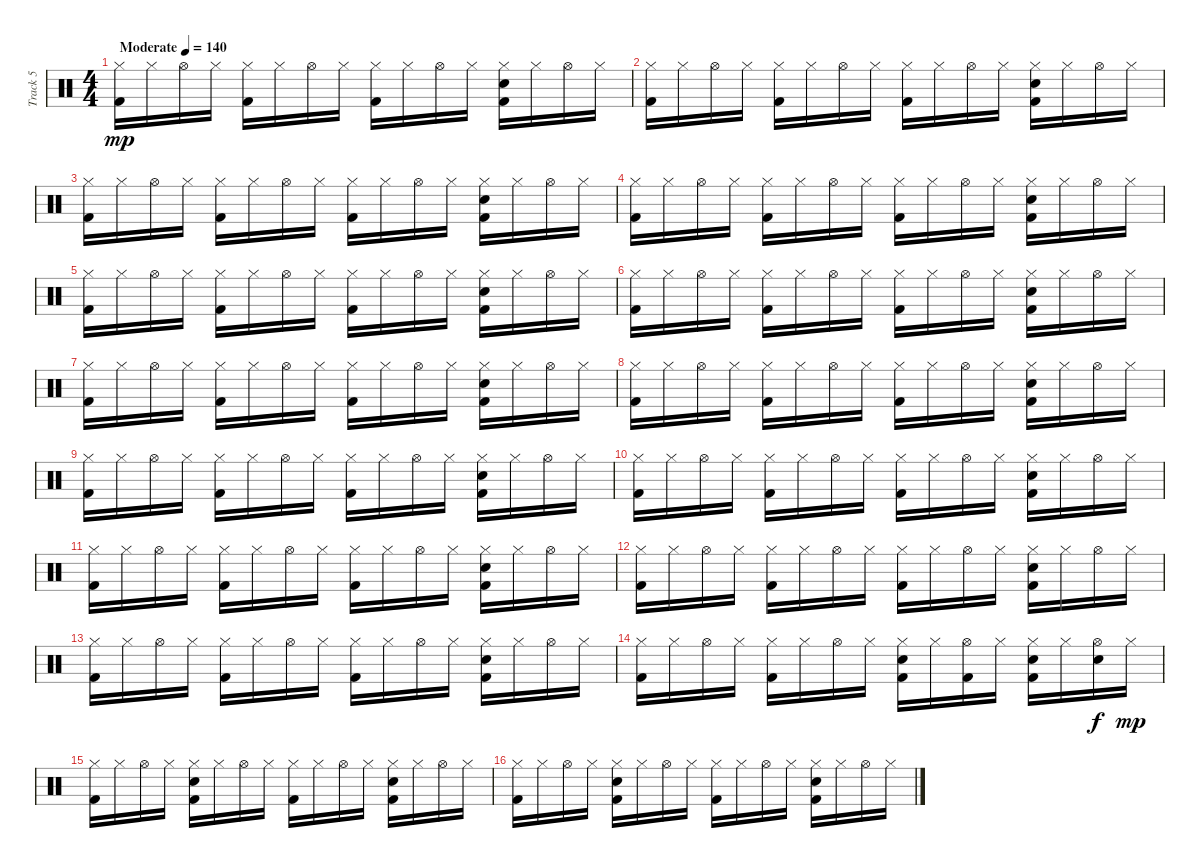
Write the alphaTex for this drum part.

\track ("Track 5" "Track 5") {instrument percussion}
\staff {score}
\articulation defaults
\ts (4 4)
\tempo (140 "Moderate")
\clef neutral
\ks c
("Hi-Hat (closed)" "Kick (hit) 2").16{dy mp} "Hi-Hat (closed)".16 "Hi-Hat (open)".16 "Hi-Hat (closed)".16 ("Hi-Hat (closed)" "Kick (hit) 2").16 "Hi-Hat (closed)".16 "Hi-Hat (open)".16 "Hi-Hat (closed)".16 ("Hi-Hat (closed)" "Kick (hit) 2").16 "Hi-Hat (closed)".16 "Hi-Hat (open)".16 "Hi-Hat (closed)".16 ("Hi-Hat (closed)" "Electric Snare (hit)" "Kick (hit) 2").16 "Hi-Hat (closed)".16 "Hi-Hat (open)".16 "Hi-Hat (closed)".16 |
("Hi-Hat (closed)" "Kick (hit) 2").16 "Hi-Hat (closed)".16 "Hi-Hat (open)".16 "Hi-Hat (closed)".16 ("Hi-Hat (closed)" "Kick (hit) 2").16 "Hi-Hat (closed)".16 "Hi-Hat (open)".16 "Hi-Hat (closed)".16 ("Hi-Hat (closed)" "Kick (hit) 2").16 "Hi-Hat (closed)".16 "Hi-Hat (open)".16 "Hi-Hat (closed)".16 ("Hi-Hat (closed)" "Electric Snare (hit)" "Kick (hit) 2").16 "Hi-Hat (closed)".16 "Hi-Hat (open)".16 "Hi-Hat (closed)".16 |
("Hi-Hat (closed)" "Kick (hit) 2").16 "Hi-Hat (closed)".16 "Hi-Hat (open)".16 "Hi-Hat (closed)".16 ("Hi-Hat (closed)" "Kick (hit) 2").16 "Hi-Hat (closed)".16 "Hi-Hat (open)".16 "Hi-Hat (closed)".16 ("Hi-Hat (closed)" "Kick (hit) 2").16 "Hi-Hat (closed)".16 "Hi-Hat (open)".16 "Hi-Hat (closed)".16 ("Hi-Hat (closed)" "Electric Snare (hit)" "Kick (hit) 2").16 "Hi-Hat (closed)".16 "Hi-Hat (open)".16 "Hi-Hat (closed)".16 |
("Hi-Hat (closed)" "Kick (hit) 2").16 "Hi-Hat (closed)".16 "Hi-Hat (open)".16 "Hi-Hat (closed)".16 ("Hi-Hat (closed)" "Kick (hit) 2").16 "Hi-Hat (closed)".16 "Hi-Hat (open)".16 "Hi-Hat (closed)".16 ("Hi-Hat (closed)" "Kick (hit) 2").16 "Hi-Hat (closed)".16 "Hi-Hat (open)".16 "Hi-Hat (closed)".16 ("Hi-Hat (closed)" "Electric Snare (hit)" "Kick (hit) 2").16 "Hi-Hat (closed)".16 "Hi-Hat (open)".16 "Hi-Hat (closed)".16 |
("Hi-Hat (closed)" "Kick (hit) 2").16 "Hi-Hat (closed)".16 "Hi-Hat (open)".16 "Hi-Hat (closed)".16 ("Hi-Hat (closed)" "Kick (hit) 2").16 "Hi-Hat (closed)".16 "Hi-Hat (open)".16 "Hi-Hat (closed)".16 ("Hi-Hat (closed)" "Kick (hit) 2").16 "Hi-Hat (closed)".16 "Hi-Hat (open)".16 "Hi-Hat (closed)".16 ("Hi-Hat (closed)" "Electric Snare (hit)" "Kick (hit) 2").16 "Hi-Hat (closed)".16 "Hi-Hat (open)".16 "Hi-Hat (closed)".16 |
("Hi-Hat (closed)" "Kick (hit) 2").16 "Hi-Hat (closed)".16 "Hi-Hat (open)".16 "Hi-Hat (closed)".16 ("Hi-Hat (closed)" "Kick (hit) 2").16 "Hi-Hat (closed)".16 "Hi-Hat (open)".16 "Hi-Hat (closed)".16 ("Hi-Hat (closed)" "Kick (hit) 2").16 "Hi-Hat (closed)".16 "Hi-Hat (open)".16 "Hi-Hat (closed)".16 ("Hi-Hat (closed)" "Electric Snare (hit)" "Kick (hit) 2").16 "Hi-Hat (closed)".16 "Hi-Hat (open)".16 "Hi-Hat (closed)".16 |
("Hi-Hat (closed)" "Kick (hit) 2").16 "Hi-Hat (closed)".16 "Hi-Hat (open)".16 "Hi-Hat (closed)".16 ("Hi-Hat (closed)" "Kick (hit) 2").16 "Hi-Hat (closed)".16 "Hi-Hat (open)".16 "Hi-Hat (closed)".16 ("Hi-Hat (closed)" "Kick (hit) 2").16 "Hi-Hat (closed)".16 "Hi-Hat (open)".16 "Hi-Hat (closed)".16 ("Hi-Hat (closed)" "Electric Snare (hit)" "Kick (hit) 2").16 "Hi-Hat (closed)".16 "Hi-Hat (open)".16 "Hi-Hat (closed)".16 |
("Hi-Hat (closed)" "Kick (hit) 2").16 "Hi-Hat (closed)".16 "Hi-Hat (open)".16 "Hi-Hat (closed)".16 ("Hi-Hat (closed)" "Kick (hit) 2").16 "Hi-Hat (closed)".16 "Hi-Hat (open)".16 "Hi-Hat (closed)".16 ("Hi-Hat (closed)" "Kick (hit) 2").16 "Hi-Hat (closed)".16 "Hi-Hat (open)".16 "Hi-Hat (closed)".16 ("Hi-Hat (closed)" "Electric Snare (hit)" "Kick (hit) 2").16 "Hi-Hat (closed)".16 "Hi-Hat (open)".16 "Hi-Hat (closed)".16 |
("Hi-Hat (closed)" "Kick (hit) 2").16 "Hi-Hat (closed)".16 "Hi-Hat (open)".16 "Hi-Hat (closed)".16 ("Hi-Hat (closed)" "Kick (hit) 2").16 "Hi-Hat (closed)".16 "Hi-Hat (open)".16 "Hi-Hat (closed)".16 ("Hi-Hat (closed)" "Kick (hit) 2").16 "Hi-Hat (closed)".16 "Hi-Hat (open)".16 "Hi-Hat (closed)".16 ("Hi-Hat (closed)" "Electric Snare (hit)" "Kick (hit) 2").16 "Hi-Hat (closed)".16 "Hi-Hat (open)".16 "Hi-Hat (closed)".16 |
("Hi-Hat (closed)" "Kick (hit) 2").16 "Hi-Hat (closed)".16 "Hi-Hat (open)".16 "Hi-Hat (closed)".16 ("Hi-Hat (closed)" "Kick (hit) 2").16 "Hi-Hat (closed)".16 "Hi-Hat (open)".16 "Hi-Hat (closed)".16 ("Hi-Hat (closed)" "Kick (hit) 2").16 "Hi-Hat (closed)".16 "Hi-Hat (open)".16 "Hi-Hat (closed)".16 ("Hi-Hat (closed)" "Electric Snare (hit)" "Kick (hit) 2").16 "Hi-Hat (closed)".16 "Hi-Hat (open)".16 "Hi-Hat (closed)".16 |
("Hi-Hat (closed)" "Kick (hit) 2").16 "Hi-Hat (closed)".16 "Hi-Hat (open)".16 "Hi-Hat (closed)".16 ("Hi-Hat (closed)" "Kick (hit) 2").16 "Hi-Hat (closed)".16 "Hi-Hat (open)".16 "Hi-Hat (closed)".16 ("Hi-Hat (closed)" "Kick (hit) 2").16 "Hi-Hat (closed)".16 "Hi-Hat (open)".16 "Hi-Hat (closed)".16 ("Hi-Hat (closed)" "Electric Snare (hit)" "Kick (hit) 2").16 "Hi-Hat (closed)".16 "Hi-Hat (open)".16 "Hi-Hat (closed)".16 |
("Hi-Hat (closed)" "Kick (hit) 2").16 "Hi-Hat (closed)".16 "Hi-Hat (open)".16 "Hi-Hat (closed)".16 ("Hi-Hat (closed)" "Kick (hit) 2").16 "Hi-Hat (closed)".16 "Hi-Hat (open)".16 "Hi-Hat (closed)".16 ("Hi-Hat (closed)" "Kick (hit) 2").16 "Hi-Hat (closed)".16 "Hi-Hat (open)".16 "Hi-Hat (closed)".16 ("Hi-Hat (closed)" "Electric Snare (hit)" "Kick (hit) 2").16 "Hi-Hat (closed)".16 "Hi-Hat (open)".16 "Hi-Hat (closed)".16 |
("Hi-Hat (closed)" "Kick (hit) 2").16 "Hi-Hat (closed)".16 "Hi-Hat (open)".16 "Hi-Hat (closed)".16 ("Hi-Hat (closed)" "Kick (hit) 2").16 "Hi-Hat (closed)".16 "Hi-Hat (open)".16 "Hi-Hat (closed)".16 ("Hi-Hat (closed)" "Kick (hit) 2").16 "Hi-Hat (closed)".16 "Hi-Hat (open)".16 "Hi-Hat (closed)".16 ("Hi-Hat (closed)" "Electric Snare (hit)" "Kick (hit) 2").16 "Hi-Hat (closed)".16 "Hi-Hat (open)".16 "Hi-Hat (closed)".16 |
("Hi-Hat (closed)" "Kick (hit) 2").16 "Hi-Hat (closed)".16 "Hi-Hat (open)".16 "Hi-Hat (closed)".16 ("Hi-Hat (closed)" "Kick (hit) 2").16 "Hi-Hat (closed)".16 "Hi-Hat (open)".16 "Hi-Hat (closed)".16 ("Hi-Hat (closed)" "Electric Snare (hit)" "Kick (hit) 2").16 "Hi-Hat (closed)".16 ("Hi-Hat (open)" "Kick (hit) 2").16 "Hi-Hat (closed)".16 ("Hi-Hat (closed)" "Electric Snare (hit)" "Kick (hit) 2").16 "Hi-Hat (closed)".16 ("Hi-Hat (open)" "Electric Snare (hit)").16{dy f} "Hi-Hat (closed)".16{dy mp} |
("Hi-Hat (closed)" "Kick (hit) 2").16 "Hi-Hat (closed)".16 "Hi-Hat (open)".16 "Hi-Hat (closed)".16 ("Hi-Hat (closed)" "Electric Snare (hit)" "Kick (hit) 2").16 "Hi-Hat (closed)".16 "Hi-Hat (open)".16 "Hi-Hat (closed)".16 ("Hi-Hat (closed)" "Kick (hit) 2").16 "Hi-Hat (closed)".16 "Hi-Hat (open)".16 "Hi-Hat (closed)".16 ("Hi-Hat (closed)" "Electric Snare (hit)" "Kick (hit) 2").16 "Hi-Hat (closed)".16 "Hi-Hat (open)".16 "Hi-Hat (closed)".16 |
("Hi-Hat (closed)" "Kick (hit) 2").16 "Hi-Hat (closed)".16 "Hi-Hat (open)".16 "Hi-Hat (closed)".16 ("Hi-Hat (closed)" "Electric Snare (hit)" "Kick (hit) 2").16 "Hi-Hat (closed)".16 "Hi-Hat (open)".16 "Hi-Hat (closed)".16 ("Hi-Hat (closed)" "Kick (hit) 2").16 "Hi-Hat (closed)".16 "Hi-Hat (open)".16 "Hi-Hat (closed)".16 ("Hi-Hat (closed)" "Electric Snare (hit)" "Kick (hit) 2").16 "Hi-Hat (closed)".16 "Hi-Hat (open)".16 "Hi-Hat (closed)".16
